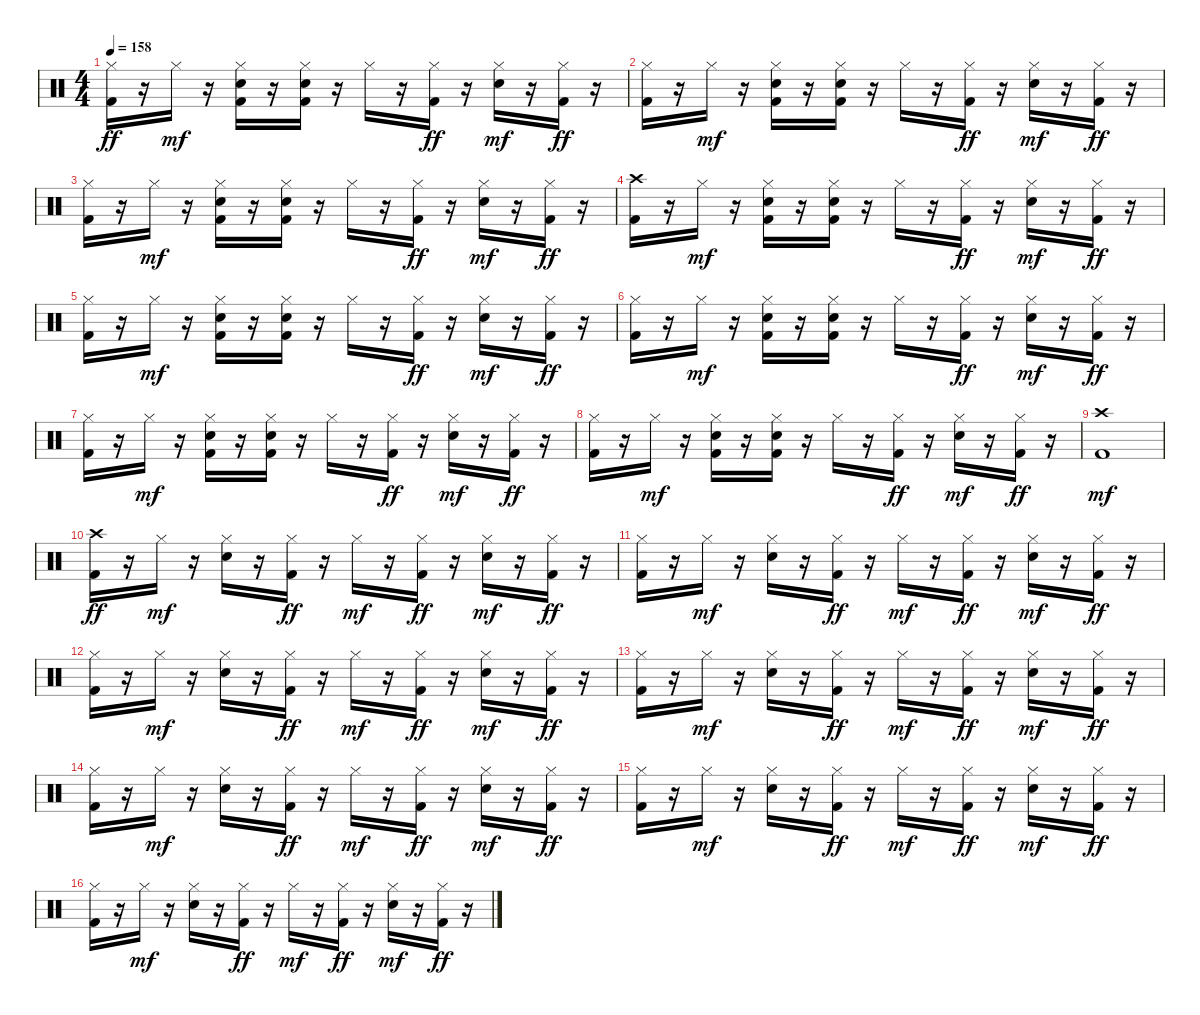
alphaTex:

\track ("   " "   ") {instrument percussion}
\staff
\articulation defaults
\ts (4 4)
\tempo 158
\clef neutral
\ks c
("Hi-Hat (closed)" "Kick (hit) 2").16{dy ff} r.16 "Hi-Hat (closed)".16{dy mf} r.16 ("Hi-Hat (closed)" "Electric Snare (hit)" "Kick (hit) 2").16 r.16 ("Hi-Hat (closed)" "Electric Snare (hit)" "Kick (hit) 2").16 r.16 "Hi-Hat (closed)".16 r.16 ("Hi-Hat (closed)" "Kick (hit) 2").16{dy ff} r.16 ("Hi-Hat (closed)" "Electric Snare (hit)").16{dy mf} r.16 ("Hi-Hat (closed)" "Kick (hit) 2").16{dy ff} r.16 |
("Hi-Hat (closed)" "Kick (hit) 2").16 r.16 "Hi-Hat (closed)".16{dy mf} r.16 ("Hi-Hat (closed)" "Electric Snare (hit)" "Kick (hit) 2").16 r.16 ("Hi-Hat (closed)" "Electric Snare (hit)" "Kick (hit) 2").16 r.16 "Hi-Hat (closed)".16 r.16 ("Hi-Hat (closed)" "Kick (hit) 2").16{dy ff} r.16 ("Hi-Hat (closed)" "Electric Snare (hit)").16{dy mf} r.16 ("Hi-Hat (closed)" "Kick (hit) 2").16{dy ff} r.16 |
("Hi-Hat (closed)" "Kick (hit) 2").16 r.16 "Hi-Hat (closed)".16{dy mf} r.16 ("Hi-Hat (closed)" "Electric Snare (hit)" "Kick (hit) 2").16 r.16 ("Hi-Hat (closed)" "Electric Snare (hit)" "Kick (hit) 2").16 r.16 "Hi-Hat (closed)".16 r.16 ("Hi-Hat (closed)" "Kick (hit) 2").16{dy ff} r.16 ("Hi-Hat (closed)" "Electric Snare (hit)").16{dy mf} r.16 ("Hi-Hat (closed)" "Kick (hit) 2").16{dy ff} r.16 |
("Crash high (hit)" "Kick (hit) 2").16 r.16 "Hi-Hat (closed)".16{dy mf} r.16 ("Hi-Hat (closed)" "Electric Snare (hit)" "Kick (hit) 2").16 r.16 ("Hi-Hat (closed)" "Electric Snare (hit)" "Kick (hit) 2").16 r.16 "Hi-Hat (closed)".16 r.16 ("Hi-Hat (closed)" "Kick (hit) 2").16{dy ff} r.16 ("Hi-Hat (closed)" "Electric Snare (hit)").16{dy mf} r.16 ("Hi-Hat (closed)" "Kick (hit) 2").16{dy ff} r.16 |
("Hi-Hat (closed)" "Kick (hit) 2").16 r.16 "Hi-Hat (closed)".16{dy mf} r.16 ("Hi-Hat (closed)" "Electric Snare (hit)" "Kick (hit) 2").16 r.16 ("Hi-Hat (closed)" "Electric Snare (hit)" "Kick (hit) 2").16 r.16 "Hi-Hat (closed)".16 r.16 ("Hi-Hat (closed)" "Kick (hit) 2").16{dy ff} r.16 ("Hi-Hat (closed)" "Electric Snare (hit)").16{dy mf} r.16 ("Hi-Hat (closed)" "Kick (hit) 2").16{dy ff} r.16 |
("Hi-Hat (closed)" "Kick (hit) 2").16 r.16 "Hi-Hat (closed)".16{dy mf} r.16 ("Hi-Hat (closed)" "Electric Snare (hit)" "Kick (hit) 2").16 r.16 ("Hi-Hat (closed)" "Electric Snare (hit)" "Kick (hit) 2").16 r.16 "Hi-Hat (closed)".16 r.16 ("Hi-Hat (closed)" "Kick (hit) 2").16{dy ff} r.16 ("Hi-Hat (closed)" "Electric Snare (hit)").16{dy mf} r.16 ("Hi-Hat (closed)" "Kick (hit) 2").16{dy ff} r.16 |
("Hi-Hat (closed)" "Kick (hit) 2").16 r.16 "Hi-Hat (closed)".16{dy mf} r.16 ("Hi-Hat (closed)" "Electric Snare (hit)" "Kick (hit) 2").16 r.16 ("Hi-Hat (closed)" "Electric Snare (hit)" "Kick (hit) 2").16 r.16 "Hi-Hat (closed)".16 r.16 ("Hi-Hat (closed)" "Kick (hit) 2").16{dy ff} r.16 ("Hi-Hat (closed)" "Electric Snare (hit)").16{dy mf} r.16 ("Hi-Hat (closed)" "Kick (hit) 2").16{dy ff} r.16 |
("Hi-Hat (closed)" "Kick (hit) 2").16 r.16 "Hi-Hat (closed)".16{dy mf} r.16 ("Hi-Hat (closed)" "Electric Snare (hit)" "Kick (hit) 2").16 r.16 ("Hi-Hat (closed)" "Electric Snare (hit)" "Kick (hit) 2").16 r.16 "Hi-Hat (closed)".16 r.16 ("Hi-Hat (closed)" "Kick (hit) 2").16{dy ff} r.16 ("Hi-Hat (closed)" "Electric Snare (hit)").16{dy mf} r.16 ("Hi-Hat (closed)" "Kick (hit) 2").16{dy ff} r.16 |
("Crash high (hit)" "Kick (hit) 2").1{dy mf} |
("Crash high (hit)" "Kick (hit) 2").16{dy ff} r.16 "Hi-Hat (closed)".16{dy mf} r.16 ("Hi-Hat (closed)" "Electric Snare (hit)").16 r.16 ("Hi-Hat (closed)" "Kick (hit) 2").16{dy ff} r.16 "Hi-Hat (closed)".16{dy mf} r.16 ("Hi-Hat (closed)" "Kick (hit) 2").16{dy ff} r.16 ("Hi-Hat (closed)" "Electric Snare (hit)").16{dy mf} r.16 ("Hi-Hat (closed)" "Kick (hit) 2").16{dy ff} r.16 |
("Hi-Hat (closed)" "Kick (hit) 2").16 r.16 "Hi-Hat (closed)".16{dy mf} r.16 ("Hi-Hat (closed)" "Electric Snare (hit)").16 r.16 ("Hi-Hat (closed)" "Kick (hit) 2").16{dy ff} r.16 "Hi-Hat (closed)".16{dy mf} r.16 ("Hi-Hat (closed)" "Kick (hit) 2").16{dy ff} r.16 ("Hi-Hat (closed)" "Electric Snare (hit)").16{dy mf} r.16 ("Hi-Hat (closed)" "Kick (hit) 2").16{dy ff} r.16 |
("Hi-Hat (closed)" "Kick (hit) 2").16 r.16 "Hi-Hat (closed)".16{dy mf} r.16 ("Hi-Hat (closed)" "Electric Snare (hit)").16 r.16 ("Hi-Hat (closed)" "Kick (hit) 2").16{dy ff} r.16 "Hi-Hat (closed)".16{dy mf} r.16 ("Hi-Hat (closed)" "Kick (hit) 2").16{dy ff} r.16 ("Hi-Hat (closed)" "Electric Snare (hit)").16{dy mf} r.16 ("Hi-Hat (closed)" "Kick (hit) 2").16{dy ff} r.16 |
("Hi-Hat (closed)" "Kick (hit) 2").16 r.16 "Hi-Hat (closed)".16{dy mf} r.16 ("Hi-Hat (closed)" "Electric Snare (hit)").16 r.16 ("Hi-Hat (closed)" "Kick (hit) 2").16{dy ff} r.16 "Hi-Hat (closed)".16{dy mf} r.16 ("Hi-Hat (closed)" "Kick (hit) 2").16{dy ff} r.16 ("Hi-Hat (closed)" "Electric Snare (hit)").16{dy mf} r.16 ("Hi-Hat (closed)" "Kick (hit) 2").16{dy ff} r.16 |
("Hi-Hat (closed)" "Kick (hit) 2").16 r.16 "Hi-Hat (closed)".16{dy mf} r.16 ("Hi-Hat (closed)" "Electric Snare (hit)").16 r.16 ("Hi-Hat (closed)" "Kick (hit) 2").16{dy ff} r.16 "Hi-Hat (closed)".16{dy mf} r.16 ("Hi-Hat (closed)" "Kick (hit) 2").16{dy ff} r.16 ("Hi-Hat (closed)" "Electric Snare (hit)").16{dy mf} r.16 ("Hi-Hat (closed)" "Kick (hit) 2").16{dy ff} r.16 |
("Hi-Hat (closed)" "Kick (hit) 2").16 r.16 "Hi-Hat (closed)".16{dy mf} r.16 ("Hi-Hat (closed)" "Electric Snare (hit)").16 r.16 ("Hi-Hat (closed)" "Kick (hit) 2").16{dy ff} r.16 "Hi-Hat (closed)".16{dy mf} r.16 ("Hi-Hat (closed)" "Kick (hit) 2").16{dy ff} r.16 ("Hi-Hat (closed)" "Electric Snare (hit)").16{dy mf} r.16 ("Hi-Hat (closed)" "Kick (hit) 2").16{dy ff} r.16 |
("Hi-Hat (closed)" "Kick (hit) 2").16 r.16 "Hi-Hat (closed)".16{dy mf} r.16 ("Hi-Hat (closed)" "Electric Snare (hit)").16 r.16 ("Hi-Hat (closed)" "Kick (hit) 2").16{dy ff} r.16 "Hi-Hat (closed)".16{dy mf} r.16 ("Hi-Hat (closed)" "Kick (hit) 2").16{dy ff} r.16 ("Hi-Hat (closed)" "Electric Snare (hit)").16{dy mf} r.16 ("Hi-Hat (closed)" "Kick (hit) 2").16{dy ff} r.16
